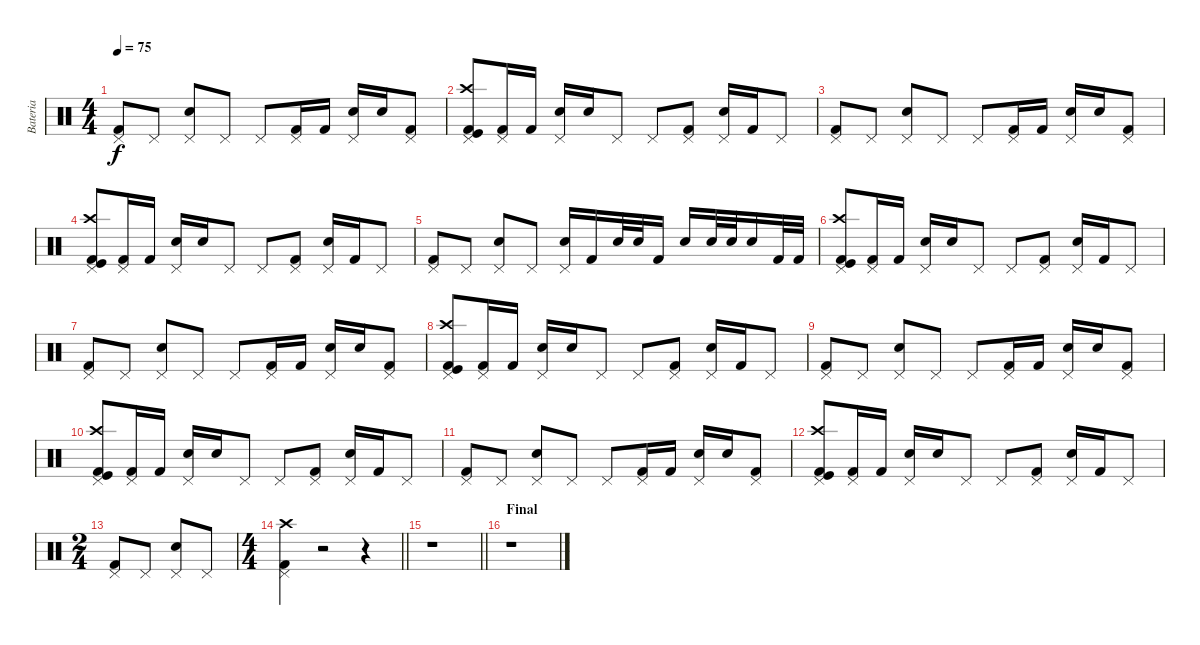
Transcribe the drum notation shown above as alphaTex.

\track ("Bateria" "Bateria") {instrument percussion}
\staff {score}
\articulation defaults
\ts (4 4)
\tempo 75
\clef neutral
\ks c
("Kick (hit) 2" "Pedal Hi-Hat (hit)").8{dy f} "Pedal Hi-Hat (hit)".8 ("Snare (hit) 2" "Pedal Hi-Hat (hit)").8 "Pedal Hi-Hat (hit)".8 "Pedal Hi-Hat (hit)".8 ("Kick (hit) 2" "Pedal Hi-Hat (hit)").16 "Kick (hit) 2".16 ("Pedal Hi-Hat (hit)" "Snare (hit) 2").16 "Snare (hit) 2".16 ("Kick (hit) 2" "Pedal Hi-Hat (hit)").8 |
("Kick (hit) 2" "Crash high (hit)" "Kick (hit)" "Pedal Hi-Hat (hit)").8 ("Kick (hit) 2" "Pedal Hi-Hat (hit)").16 "Kick (hit) 2".16 ("Pedal Hi-Hat (hit)" "Snare (hit) 2").16 "Snare (hit) 2".16 "Pedal Hi-Hat (hit)".8 "Pedal Hi-Hat (hit)".8 ("Pedal Hi-Hat (hit)" "Kick (hit) 2").8 ("Pedal Hi-Hat (hit)" "Snare (hit) 2").16 "Kick (hit) 2".16 "Pedal Hi-Hat (hit)".8 |
("Pedal Hi-Hat (hit)" "Kick (hit) 2").8 "Pedal Hi-Hat (hit)".8 ("Pedal Hi-Hat (hit)" "Snare (hit) 2").8 "Pedal Hi-Hat (hit)".8 "Pedal Hi-Hat (hit)".8 ("Pedal Hi-Hat (hit)" "Kick (hit) 2").16 "Kick (hit) 2".16 ("Snare (hit) 2" "Pedal Hi-Hat (hit)").16 "Snare (hit) 2".16 ("Kick (hit) 2" "Pedal Hi-Hat (hit)").8 |
("Pedal Hi-Hat (hit)" "Crash high (hit)" "Kick (hit)" "Kick (hit) 2").8 ("Pedal Hi-Hat (hit)" "Kick (hit) 2").16 "Kick (hit) 2".16 ("Snare (hit) 2" "Pedal Hi-Hat (hit)").16 "Snare (hit) 2".16 "Pedal Hi-Hat (hit)".8 "Pedal Hi-Hat (hit)".8 ("Pedal Hi-Hat (hit)" "Kick (hit) 2").8 ("Snare (hit) 2" "Pedal Hi-Hat (hit)").16 "Kick (hit) 2".16 "Pedal Hi-Hat (hit)".8 |
("Kick (hit) 2" "Pedal Hi-Hat (hit)").8 "Pedal Hi-Hat (hit)".8 ("Pedal Hi-Hat (hit)" "Snare (hit) 2").8 "Pedal Hi-Hat (hit)".8 ("Pedal Hi-Hat (hit)" "Snare (hit) 2").16 "Kick (hit) 2".16 "Snare (hit) 2".32 "Snare (hit) 2".32 "Kick (hit) 2".16 "Snare (hit) 2".16 "Snare (hit) 2".32 "Snare (hit) 2".32 "Snare (hit) 2".16 "Kick (hit) 2".32 "Kick (hit) 2".32 |
("Kick (hit)" "Crash high (hit)" "Kick (hit) 2" "Pedal Hi-Hat (hit)").8 ("Kick (hit) 2" "Pedal Hi-Hat (hit)").16 "Kick (hit) 2".16 ("Snare (hit) 2" "Pedal Hi-Hat (hit)").16 "Snare (hit) 2".16 "Pedal Hi-Hat (hit)".8 "Pedal Hi-Hat (hit)".8 ("Pedal Hi-Hat (hit)" "Kick (hit) 2").8 ("Pedal Hi-Hat (hit)" "Snare (hit) 2").16 "Kick (hit) 2".16 "Pedal Hi-Hat (hit)".8 |
("Pedal Hi-Hat (hit)" "Kick (hit) 2").8 "Pedal Hi-Hat (hit)".8 ("Snare (hit) 2" "Pedal Hi-Hat (hit)").8 "Pedal Hi-Hat (hit)".8 "Pedal Hi-Hat (hit)".8 ("Pedal Hi-Hat (hit)" "Kick (hit) 2").16 "Kick (hit) 2".16 ("Pedal Hi-Hat (hit)" "Snare (hit) 2").16 "Snare (hit) 2".16 ("Kick (hit) 2" "Pedal Hi-Hat (hit)").8 |
("Crash high (hit)" "Kick (hit) 2" "Pedal Hi-Hat (hit)" "Kick (hit)").8 ("Kick (hit) 2" "Pedal Hi-Hat (hit)").16 "Kick (hit) 2".16 ("Snare (hit) 2" "Pedal Hi-Hat (hit)").16 "Snare (hit) 2".16 "Pedal Hi-Hat (hit)".8 "Pedal Hi-Hat (hit)".8 ("Kick (hit) 2" "Pedal Hi-Hat (hit)").8 ("Pedal Hi-Hat (hit)" "Snare (hit) 2").16 "Kick (hit) 2".16 "Pedal Hi-Hat (hit)".8 |
("Kick (hit) 2" "Pedal Hi-Hat (hit)").8 "Pedal Hi-Hat (hit)".8 ("Pedal Hi-Hat (hit)" "Snare (hit) 2").8 "Pedal Hi-Hat (hit)".8 "Pedal Hi-Hat (hit)".8 ("Pedal Hi-Hat (hit)" "Kick (hit) 2").16 "Kick (hit) 2".16 ("Pedal Hi-Hat (hit)" "Snare (hit) 2").16 "Snare (hit) 2".16 ("Pedal Hi-Hat (hit)" "Kick (hit) 2").8 |
("Crash high (hit)" "Kick (hit)" "Kick (hit) 2" "Pedal Hi-Hat (hit)").8 ("Kick (hit) 2" "Pedal Hi-Hat (hit)").16 "Kick (hit) 2".16 ("Snare (hit) 2" "Pedal Hi-Hat (hit)").16 "Snare (hit) 2".16 "Pedal Hi-Hat (hit)".8 "Pedal Hi-Hat (hit)".8 ("Pedal Hi-Hat (hit)" "Kick (hit) 2").8 ("Pedal Hi-Hat (hit)" "Snare (hit) 2").16 "Kick (hit) 2".16 "Pedal Hi-Hat (hit)".8 |
("Kick (hit) 2" "Pedal Hi-Hat (hit)").8 "Pedal Hi-Hat (hit)".8 ("Pedal Hi-Hat (hit)" "Snare (hit) 2").8 "Pedal Hi-Hat (hit)".8 "Pedal Hi-Hat (hit)".8 ("Pedal Hi-Hat (hit)" "Kick (hit) 2").16 "Kick (hit) 2".16 ("Pedal Hi-Hat (hit)" "Snare (hit) 2").16 "Snare (hit) 2".16 ("Kick (hit) 2" "Pedal Hi-Hat (hit)").8 |
("Crash high (hit)" "Kick (hit)" "Kick (hit) 2" "Pedal Hi-Hat (hit)").8 ("Kick (hit) 2" "Pedal Hi-Hat (hit)").16 "Kick (hit) 2".16 ("Snare (hit) 2" "Pedal Hi-Hat (hit)").16 "Snare (hit) 2".16 "Pedal Hi-Hat (hit)".8 "Pedal Hi-Hat (hit)".8 ("Kick (hit) 2" "Pedal Hi-Hat (hit)").8 ("Pedal Hi-Hat (hit)" "Snare (hit) 2").16 "Kick (hit) 2".16 "Pedal Hi-Hat (hit)".8 |
\ts (2 4)
("Pedal Hi-Hat (hit)" "Kick (hit) 2").8 "Pedal Hi-Hat (hit)".8 ("Snare (hit) 2" "Pedal Hi-Hat (hit)").8 "Pedal Hi-Hat (hit)".8 |
\ts (4 4)
\barLineRight lightlight
("Kick (hit) 2" "Crash high (hit)" "Pedal Hi-Hat (hit)").4 r.2 r.4 |
\barLineRight lightlight
r.1 |
\section ("" "Final")
r.1
